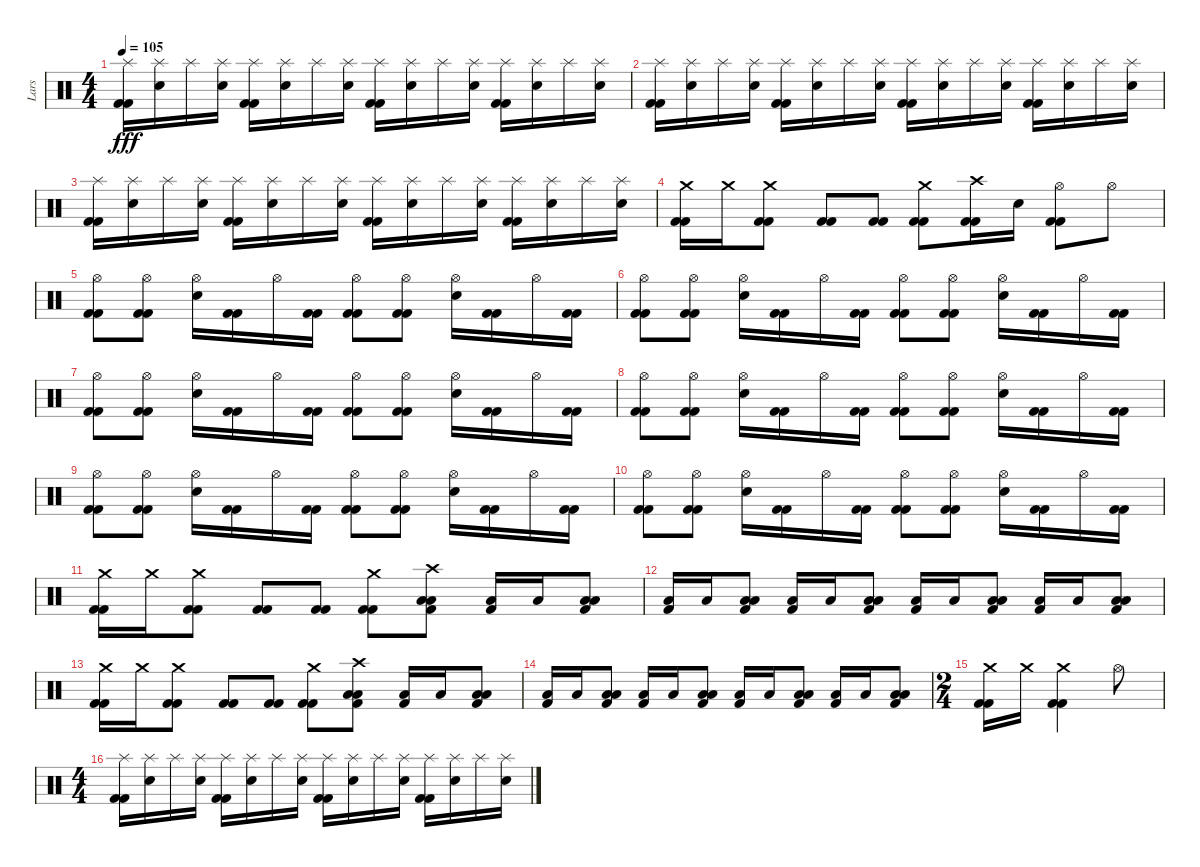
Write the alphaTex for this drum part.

\track ("Lars" "Lars") {instrument percussion}
\staff {score}
\articulation defaults
\ts (4 4)
\tempo 105
\clef neutral
\ks c
("Splash (hit)" "Kick (hit) 2" "Kick (hit) 2").16{dy fff} ("Splash (hit)" "Electric Snare (hit)").16 "Splash (hit)".16 ("Splash (hit)" "Electric Snare (hit)").16 ("Splash (hit)" "Kick (hit) 2" "Kick (hit) 2").16 ("Splash (hit)" "Electric Snare (hit)").16 "Splash (hit)".16 ("Splash (hit)" "Electric Snare (hit)").16 ("Splash (hit)" "Kick (hit) 2" "Kick (hit) 2").16 ("Splash (hit)" "Electric Snare (hit)").16 "Splash (hit)".16 ("Splash (hit)" "Electric Snare (hit)").16 ("Splash (hit)" "Kick (hit) 2" "Kick (hit) 2").16 ("Splash (hit)" "Electric Snare (hit)").16 "Splash (hit)".16 ("Splash (hit)" "Electric Snare (hit)").16 |
("Splash (hit)" "Kick (hit) 2" "Kick (hit) 2").16 ("Splash (hit)" "Electric Snare (hit)").16 "Splash (hit)".16 ("Splash (hit)" "Electric Snare (hit)").16 ("Splash (hit)" "Kick (hit) 2" "Kick (hit) 2").16 ("Splash (hit)" "Electric Snare (hit)").16 "Splash (hit)".16 ("Splash (hit)" "Electric Snare (hit)").16 ("Splash (hit)" "Kick (hit) 2" "Kick (hit) 2").16 ("Splash (hit)" "Electric Snare (hit)").16 "Splash (hit)".16 ("Splash (hit)" "Electric Snare (hit)").16 ("Splash (hit)" "Kick (hit) 2" "Kick (hit) 2").16 ("Splash (hit)" "Electric Snare (hit)").16 "Splash (hit)".16 ("Splash (hit)" "Electric Snare (hit)").16 |
("Splash (hit)" "Kick (hit) 2" "Kick (hit) 2").16 ("Splash (hit)" "Electric Snare (hit)").16 "Splash (hit)".16 ("Splash (hit)" "Electric Snare (hit)").16 ("Splash (hit)" "Kick (hit) 2" "Kick (hit) 2").16 ("Splash (hit)" "Electric Snare (hit)").16 "Splash (hit)".16 ("Splash (hit)" "Electric Snare (hit)").16 ("Splash (hit)" "Kick (hit) 2" "Kick (hit) 2").16 ("Splash (hit)" "Electric Snare (hit)").16 "Splash (hit)".16 ("Splash (hit)" "Electric Snare (hit)").16 ("Splash (hit)" "Kick (hit) 2" "Kick (hit) 2").16 ("Splash (hit)" "Electric Snare (hit)").16 "Splash (hit)".16 ("Splash (hit)" "Electric Snare (hit)").16 |
("Crash medium (hit)" "Kick (hit) 2" "Kick (hit) 2").16 "Crash medium (hit)".16 ("Crash medium (hit)" "Kick (hit) 2" "Kick (hit) 2").8 ("Kick (hit) 2" "Kick (hit) 2").8 ("Kick (hit) 2" "Kick (hit) 2").8 ("Crash medium (hit)" "Kick (hit) 2" "Kick (hit) 2").8 ("Crash high (hit)" "Kick (hit) 2" "Kick (hit) 2").16 "Electric Snare (hit)".16 ("Hi-Hat (open)" "Kick (hit) 2" "Kick (hit) 2").8 "Hi-Hat (open)".8 |
("Hi-Hat (open)" "Kick (hit) 2" "Kick (hit) 2").8 ("Hi-Hat (open)" "Kick (hit) 2" "Kick (hit) 2").8 ("Hi-Hat (open)" "Electric Snare (hit)").16 ("Kick (hit) 2" "Kick (hit) 2").16 "Hi-Hat (open)".16 ("Kick (hit) 2" "Kick (hit) 2").16 ("Hi-Hat (open)" "Kick (hit) 2" "Kick (hit) 2").8 ("Hi-Hat (open)" "Kick (hit) 2" "Kick (hit) 2").8 ("Hi-Hat (open)" "Electric Snare (hit)").16 ("Kick (hit) 2" "Kick (hit) 2").16 "Hi-Hat (open)".16 ("Kick (hit) 2" "Kick (hit) 2").16 |
("Hi-Hat (open)" "Kick (hit) 2" "Kick (hit) 2").8 ("Hi-Hat (open)" "Kick (hit) 2" "Kick (hit) 2").8 ("Hi-Hat (open)" "Electric Snare (hit)").16 ("Kick (hit) 2" "Kick (hit) 2").16 "Hi-Hat (open)".16 ("Kick (hit) 2" "Kick (hit) 2").16 ("Hi-Hat (open)" "Kick (hit) 2" "Kick (hit) 2").8 ("Hi-Hat (open)" "Kick (hit) 2" "Kick (hit) 2").8 ("Hi-Hat (open)" "Electric Snare (hit)").16 ("Kick (hit) 2" "Kick (hit) 2").16 "Hi-Hat (open)".16 ("Kick (hit) 2" "Kick (hit) 2").16 |
("Hi-Hat (open)" "Kick (hit) 2" "Kick (hit) 2").8 ("Hi-Hat (open)" "Kick (hit) 2" "Kick (hit) 2").8 ("Hi-Hat (open)" "Electric Snare (hit)").16 ("Kick (hit) 2" "Kick (hit) 2").16 "Hi-Hat (open)".16 ("Kick (hit) 2" "Kick (hit) 2").16 ("Hi-Hat (open)" "Kick (hit) 2" "Kick (hit) 2").8 ("Hi-Hat (open)" "Kick (hit) 2" "Kick (hit) 2").8 ("Hi-Hat (open)" "Electric Snare (hit)").16 ("Kick (hit) 2" "Kick (hit) 2").16 "Hi-Hat (open)".16 ("Kick (hit) 2" "Kick (hit) 2").16 |
("Hi-Hat (open)" "Kick (hit) 2" "Kick (hit) 2").8 ("Hi-Hat (open)" "Kick (hit) 2" "Kick (hit) 2").8 ("Hi-Hat (open)" "Electric Snare (hit)").16 ("Kick (hit) 2" "Kick (hit) 2").16 "Hi-Hat (open)".16 ("Kick (hit) 2" "Kick (hit) 2").16 ("Hi-Hat (open)" "Kick (hit) 2" "Kick (hit) 2").8 ("Hi-Hat (open)" "Kick (hit) 2" "Kick (hit) 2").8 ("Hi-Hat (open)" "Electric Snare (hit)").16 ("Kick (hit) 2" "Kick (hit) 2").16 "Hi-Hat (open)".16 ("Kick (hit) 2" "Kick (hit) 2").16 |
("Hi-Hat (open)" "Kick (hit) 2" "Kick (hit) 2").8 ("Hi-Hat (open)" "Kick (hit) 2" "Kick (hit) 2").8 ("Hi-Hat (open)" "Electric Snare (hit)").16 ("Kick (hit) 2" "Kick (hit) 2").16 "Hi-Hat (open)".16 ("Kick (hit) 2" "Kick (hit) 2").16 ("Hi-Hat (open)" "Kick (hit) 2" "Kick (hit) 2").8 ("Hi-Hat (open)" "Kick (hit) 2" "Kick (hit) 2").8 ("Hi-Hat (open)" "Electric Snare (hit)").16 ("Kick (hit) 2" "Kick (hit) 2").16 "Hi-Hat (open)".16 ("Kick (hit) 2" "Kick (hit) 2").16 |
("Hi-Hat (open)" "Kick (hit) 2" "Kick (hit) 2").8 ("Hi-Hat (open)" "Kick (hit) 2" "Kick (hit) 2").8 ("Hi-Hat (open)" "Electric Snare (hit)").16 ("Kick (hit) 2" "Kick (hit) 2").16 "Hi-Hat (open)".16 ("Kick (hit) 2" "Kick (hit) 2").16 ("Hi-Hat (open)" "Kick (hit) 2" "Kick (hit) 2").8 ("Hi-Hat (open)" "Kick (hit) 2" "Kick (hit) 2").8 ("Hi-Hat (open)" "Electric Snare (hit)").16 ("Kick (hit) 2" "Kick (hit) 2").16 "Hi-Hat (open)".16 ("Kick (hit) 2" "Kick (hit) 2").16 |
("Crash medium (hit)" "Kick (hit) 2" "Kick (hit) 2").16 "Crash medium (hit)".16 ("Crash medium (hit)" "Kick (hit) 2" "Kick (hit) 2").8 ("Kick (hit) 2" "Kick (hit) 2").8 ("Kick (hit) 2" "Kick (hit) 2").8 ("Crash medium (hit)" "Kick (hit) 2" "Kick (hit) 2").8 ("Crash high (hit)" "Low Tom (hit)" "Low Floor Tom (hit)" "Kick (hit) 2").8 ("Low Floor Tom (hit)" "Kick (hit) 2").16 "Low Floor Tom (hit)".16 ("Low Tom (hit)" "Low Floor Tom (hit)" "Kick (hit) 2").8 |
("Low Floor Tom (hit)" "Kick (hit) 2").16 "Low Floor Tom (hit)".16 ("Low Tom (hit)" "Low Floor Tom (hit)" "Kick (hit) 2").8 ("Low Floor Tom (hit)" "Kick (hit) 2").16 "Low Floor Tom (hit)".16 ("Low Tom (hit)" "Low Floor Tom (hit)" "Kick (hit) 2").8 ("Low Floor Tom (hit)" "Kick (hit) 2").16 "Low Floor Tom (hit)".16 ("Low Tom (hit)" "Low Floor Tom (hit)" "Kick (hit) 2").8 ("Low Floor Tom (hit)" "Kick (hit) 2").16 "Low Floor Tom (hit)".16 ("Low Tom (hit)" "Low Floor Tom (hit)" "Kick (hit) 2").8 |
("Crash medium (hit)" "Kick (hit) 2" "Kick (hit) 2").16 "Crash medium (hit)".16 ("Crash medium (hit)" "Kick (hit) 2" "Kick (hit) 2").8 ("Kick (hit) 2" "Kick (hit) 2").8 ("Kick (hit) 2" "Kick (hit) 2").8 ("Crash medium (hit)" "Kick (hit) 2" "Kick (hit) 2").8 ("Crash high (hit)" "Low Tom (hit)" "Low Floor Tom (hit)" "Kick (hit) 2").8 ("Low Floor Tom (hit)" "Kick (hit) 2").16 "Low Floor Tom (hit)".16 ("Low Tom (hit)" "Low Floor Tom (hit)" "Kick (hit) 2").8 |
("Low Floor Tom (hit)" "Kick (hit) 2").16 "Low Floor Tom (hit)".16 ("Low Tom (hit)" "Low Floor Tom (hit)" "Kick (hit) 2").8 ("Low Floor Tom (hit)" "Kick (hit) 2").16 "Low Floor Tom (hit)".16 ("Low Tom (hit)" "Low Floor Tom (hit)" "Kick (hit) 2").8 ("Low Floor Tom (hit)" "Kick (hit) 2").16 "Low Floor Tom (hit)".16 ("Low Tom (hit)" "Low Floor Tom (hit)" "Kick (hit) 2").8 ("Low Floor Tom (hit)" "Kick (hit) 2").16 "Low Floor Tom (hit)".16 ("Low Tom (hit)" "Low Floor Tom (hit)" "Kick (hit) 2").8 |
\ts (2 4)
("Crash medium (hit)" "Kick (hit) 2" "Kick (hit) 2").16 "Crash medium (hit)".16 ("Crash medium (hit)" "Kick (hit) 2" "Kick (hit) 2").4 "Hi-Hat (open)".8 |
\ts (4 4)
("Splash (hit)" "Kick (hit) 2" "Kick (hit) 2").16 ("Splash (hit)" "Electric Snare (hit)").16 "Splash (hit)".16 ("Splash (hit)" "Electric Snare (hit)").16 ("Splash (hit)" "Kick (hit) 2" "Kick (hit) 2").16 ("Splash (hit)" "Electric Snare (hit)").16 "Splash (hit)".16 ("Splash (hit)" "Electric Snare (hit)").16 ("Splash (hit)" "Kick (hit) 2" "Kick (hit) 2").16 ("Splash (hit)" "Electric Snare (hit)").16 "Splash (hit)".16 ("Splash (hit)" "Electric Snare (hit)").16 ("Splash (hit)" "Kick (hit) 2" "Kick (hit) 2").16 ("Splash (hit)" "Electric Snare (hit)").16 "Splash (hit)".16 ("Splash (hit)" "Electric Snare (hit)").16
